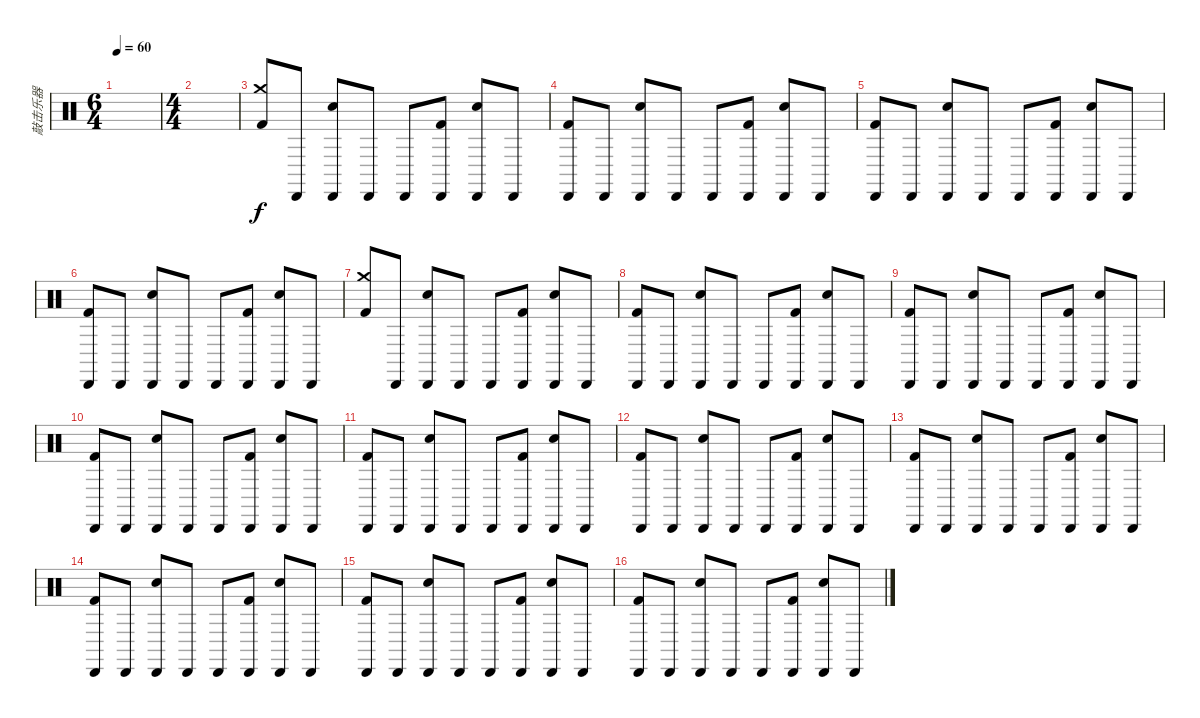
\track ("敲击乐器" "敲击乐器") {instrument percussion}
\staff {score}
\articulation defaults
\ts (6 4)
\tempo 60
\clef neutral
\ks c
|
\ts (4 4)
|
("Crash medium (hit)" "Kick (hit) 2").8 "Cabasa (hit)".8 ("Cabasa (hit)" "Electric Snare (hit)").8 "Cabasa (hit)".8 "Cabasa (hit)".8 ("Cabasa (hit)" "Kick (hit) 2").8 ("Cabasa (hit)" "Electric Snare (hit)").8 "Cabasa (hit)".8 |
("Cabasa (hit)" "Kick (hit) 2").8 "Cabasa (hit)".8 ("Cabasa (hit)" "Electric Snare (hit)").8 "Cabasa (hit)".8 "Cabasa (hit)".8 ("Cabasa (hit)" "Kick (hit) 2").8 ("Cabasa (hit)" "Electric Snare (hit)").8 "Cabasa (hit)".8 |
("Cabasa (hit)" "Kick (hit) 2").8 "Cabasa (hit)".8 ("Cabasa (hit)" "Electric Snare (hit)").8 "Cabasa (hit)".8 "Cabasa (hit)".8 ("Cabasa (hit)" "Kick (hit) 2").8 ("Cabasa (hit)" "Electric Snare (hit)").8 "Cabasa (hit)".8 |
("Cabasa (hit)" "Kick (hit) 2").8 "Cabasa (hit)".8 ("Cabasa (hit)" "Electric Snare (hit)").8 "Cabasa (hit)".8 "Cabasa (hit)".8 ("Cabasa (hit)" "Kick (hit) 2").8 ("Cabasa (hit)" "Electric Snare (hit)").8 "Cabasa (hit)".8 |
("Crash medium (hit)" "Kick (hit) 2").8 "Cabasa (hit)".8 ("Cabasa (hit)" "Electric Snare (hit)").8 "Cabasa (hit)".8 "Cabasa (hit)".8 ("Cabasa (hit)" "Kick (hit) 2").8 ("Cabasa (hit)" "Electric Snare (hit)").8 "Cabasa (hit)".8 |
("Cabasa (hit)" "Kick (hit) 2").8 "Cabasa (hit)".8 ("Cabasa (hit)" "Electric Snare (hit)").8 "Cabasa (hit)".8 "Cabasa (hit)".8 ("Cabasa (hit)" "Kick (hit) 2").8 ("Cabasa (hit)" "Electric Snare (hit)").8 "Cabasa (hit)".8 |
("Cabasa (hit)" "Kick (hit) 2").8 "Cabasa (hit)".8 ("Cabasa (hit)" "Electric Snare (hit)").8 "Cabasa (hit)".8 "Cabasa (hit)".8 ("Cabasa (hit)" "Kick (hit) 2").8 ("Cabasa (hit)" "Electric Snare (hit)").8 "Cabasa (hit)".8 |
("Cabasa (hit)" "Kick (hit) 2").8 "Cabasa (hit)".8 ("Cabasa (hit)" "Electric Snare (hit)").8 "Cabasa (hit)".8 "Cabasa (hit)".8 ("Cabasa (hit)" "Kick (hit) 2").8 ("Cabasa (hit)" "Electric Snare (hit)").8 "Cabasa (hit)".8 |
("Cabasa (hit)" "Kick (hit) 2").8 "Cabasa (hit)".8 ("Cabasa (hit)" "Electric Snare (hit)").8 "Cabasa (hit)".8 "Cabasa (hit)".8 ("Cabasa (hit)" "Kick (hit) 2").8 ("Cabasa (hit)" "Electric Snare (hit)").8 "Cabasa (hit)".8 |
("Cabasa (hit)" "Kick (hit) 2").8 "Cabasa (hit)".8 ("Cabasa (hit)" "Electric Snare (hit)").8 "Cabasa (hit)".8 "Cabasa (hit)".8 ("Cabasa (hit)" "Kick (hit) 2").8 ("Cabasa (hit)" "Electric Snare (hit)").8 "Cabasa (hit)".8 |
("Cabasa (hit)" "Kick (hit) 2").8 "Cabasa (hit)".8 ("Cabasa (hit)" "Electric Snare (hit)").8 "Cabasa (hit)".8 "Cabasa (hit)".8 ("Cabasa (hit)" "Kick (hit) 2").8 ("Cabasa (hit)" "Electric Snare (hit)").8 "Cabasa (hit)".8 |
("Cabasa (hit)" "Kick (hit) 2").8 "Cabasa (hit)".8 ("Cabasa (hit)" "Electric Snare (hit)").8 "Cabasa (hit)".8 "Cabasa (hit)".8 ("Cabasa (hit)" "Kick (hit) 2").8 ("Cabasa (hit)" "Electric Snare (hit)").8 "Cabasa (hit)".8 |
("Cabasa (hit)" "Kick (hit) 2").8 "Cabasa (hit)".8 ("Cabasa (hit)" "Electric Snare (hit)").8 "Cabasa (hit)".8 "Cabasa (hit)".8 ("Cabasa (hit)" "Kick (hit) 2").8 ("Cabasa (hit)" "Electric Snare (hit)").8 "Cabasa (hit)".8 |
("Cabasa (hit)" "Kick (hit) 2").8 "Cabasa (hit)".8 ("Cabasa (hit)" "Electric Snare (hit)").8 "Cabasa (hit)".8 "Cabasa (hit)".8 ("Cabasa (hit)" "Kick (hit) 2").8 ("Cabasa (hit)" "Electric Snare (hit)").8 "Cabasa (hit)".8
